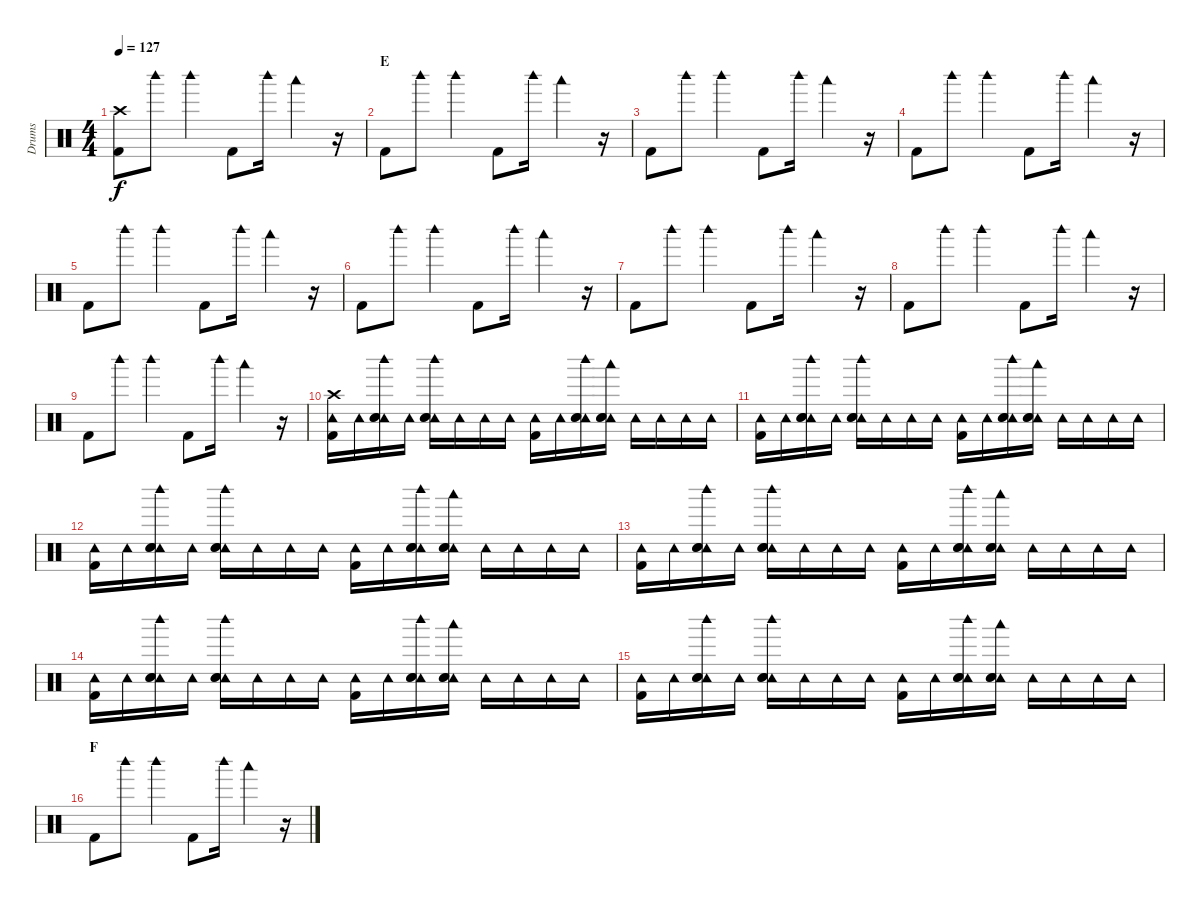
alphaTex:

\track ("Drums" "Drums") {instrument percussion}
\staff {score}
\articulation defaults
\ts (4 4)
\tempo 127
\clef neutral
\ks c
("Crash high (hit)" "Kick (hit) 2").8{dy f} "Woodblock high (hit)".8 "Woodblock high (hit)".4 "Kick (hit) 2".8 "Woodblock high (hit)".16 "Woodblock low (hit)".4 r.16 |
\section ("" "E")
"Kick (hit) 2".8 "Woodblock high (hit)".8 "Woodblock high (hit)".4 "Kick (hit) 2".8 "Woodblock high (hit)".16 "Woodblock low (hit)".4 r.16 |
"Kick (hit) 2".8 "Woodblock high (hit)".8 "Woodblock high (hit)".4 "Kick (hit) 2".8 "Woodblock high (hit)".16 "Woodblock low (hit)".4 r.16 |
"Kick (hit) 2".8 "Woodblock high (hit)".8 "Woodblock high (hit)".4 "Kick (hit) 2".8 "Woodblock high (hit)".16 "Woodblock low (hit)".4 r.16 |
"Kick (hit) 2".8 "Woodblock high (hit)".8 "Woodblock high (hit)".4 "Kick (hit) 2".8 "Woodblock high (hit)".16 "Woodblock low (hit)".4 r.16 |
"Kick (hit) 2".8 "Woodblock high (hit)".8 "Woodblock high (hit)".4 "Kick (hit) 2".8 "Woodblock high (hit)".16 "Woodblock low (hit)".4 r.16 |
"Kick (hit) 2".8 "Woodblock high (hit)".8 "Woodblock high (hit)".4 "Kick (hit) 2".8 "Woodblock high (hit)".16 "Woodblock low (hit)".4 r.16 |
"Kick (hit) 2".8 "Woodblock high (hit)".8 "Woodblock high (hit)".4 "Kick (hit) 2".8 "Woodblock high (hit)".16 "Woodblock low (hit)".4 r.16 |
"Kick (hit) 2".8 "Woodblock high (hit)".8 "Woodblock high (hit)".4 "Kick (hit) 2".8 "Woodblock high (hit)".16 "Woodblock low (hit)".4 r.16 |
("Crash high (hit)" "Tambourine (hit)" "Kick (hit) 2").16{volume 13} "Tambourine (hit)".16 ("Tambourine (hit)" "Electric Snare (hit)" "Hand Clap (hit)" "Woodblock high (hit)").16 "Tambourine (hit)".16 ("Tambourine (hit)" "Electric Snare (hit)" "Hand Clap (hit)" "Woodblock high (hit)").16 "Tambourine (hit)".16 "Tambourine (hit)".16 "Tambourine (hit)".16 ("Tambourine (hit)" "Kick (hit) 2").16 "Tambourine (hit)".16 ("Tambourine (hit)" "Electric Snare (hit)" "Hand Clap (hit)" "Woodblock high (hit)").16 ("Tambourine (hit)" "Electric Snare (hit)" "Hand Clap (hit)" "Woodblock low (hit)").16 "Tambourine (hit)".16 "Tambourine (hit)".16 "Tambourine (hit)".16 "Tambourine (hit)".16 |
("Tambourine (hit)" "Kick (hit) 2").16 "Tambourine (hit)".16 ("Tambourine (hit)" "Electric Snare (hit)" "Hand Clap (hit)" "Woodblock high (hit)").16 "Tambourine (hit)".16 ("Tambourine (hit)" "Electric Snare (hit)" "Hand Clap (hit)" "Woodblock high (hit)").16 "Tambourine (hit)".16 "Tambourine (hit)".16 "Tambourine (hit)".16 ("Tambourine (hit)" "Kick (hit) 2").16 "Tambourine (hit)".16 ("Tambourine (hit)" "Electric Snare (hit)" "Hand Clap (hit)" "Woodblock high (hit)").16 ("Tambourine (hit)" "Electric Snare (hit)" "Hand Clap (hit)" "Woodblock low (hit)").16 "Tambourine (hit)".16 "Tambourine (hit)".16 "Tambourine (hit)".16 "Tambourine (hit)".16 |
("Tambourine (hit)" "Kick (hit) 2").16 "Tambourine (hit)".16 ("Tambourine (hit)" "Electric Snare (hit)" "Hand Clap (hit)" "Woodblock high (hit)").16 "Tambourine (hit)".16 ("Tambourine (hit)" "Electric Snare (hit)" "Hand Clap (hit)" "Woodblock high (hit)").16 "Tambourine (hit)".16 "Tambourine (hit)".16 "Tambourine (hit)".16 ("Tambourine (hit)" "Kick (hit) 2").16 "Tambourine (hit)".16 ("Tambourine (hit)" "Electric Snare (hit)" "Hand Clap (hit)" "Woodblock high (hit)").16 ("Tambourine (hit)" "Electric Snare (hit)" "Hand Clap (hit)" "Woodblock low (hit)").16 "Tambourine (hit)".16 "Tambourine (hit)".16 "Tambourine (hit)".16 "Tambourine (hit)".16 |
("Tambourine (hit)" "Kick (hit) 2").16 "Tambourine (hit)".16 ("Tambourine (hit)" "Electric Snare (hit)" "Hand Clap (hit)" "Woodblock high (hit)").16 "Tambourine (hit)".16 ("Tambourine (hit)" "Electric Snare (hit)" "Hand Clap (hit)" "Woodblock high (hit)").16 "Tambourine (hit)".16 "Tambourine (hit)".16 "Tambourine (hit)".16 ("Tambourine (hit)" "Kick (hit) 2").16 "Tambourine (hit)".16 ("Tambourine (hit)" "Electric Snare (hit)" "Hand Clap (hit)" "Woodblock high (hit)").16 ("Tambourine (hit)" "Electric Snare (hit)" "Hand Clap (hit)" "Woodblock low (hit)").16 "Tambourine (hit)".16 "Tambourine (hit)".16 "Tambourine (hit)".16 "Tambourine (hit)".16 |
("Tambourine (hit)" "Kick (hit) 2").16 "Tambourine (hit)".16 ("Tambourine (hit)" "Electric Snare (hit)" "Hand Clap (hit)" "Woodblock high (hit)").16 "Tambourine (hit)".16 ("Tambourine (hit)" "Electric Snare (hit)" "Hand Clap (hit)" "Woodblock high (hit)").16 "Tambourine (hit)".16 "Tambourine (hit)".16 "Tambourine (hit)".16 ("Tambourine (hit)" "Kick (hit) 2").16 "Tambourine (hit)".16 ("Tambourine (hit)" "Electric Snare (hit)" "Hand Clap (hit)" "Woodblock high (hit)").16 ("Tambourine (hit)" "Electric Snare (hit)" "Hand Clap (hit)" "Woodblock low (hit)").16 "Tambourine (hit)".16 "Tambourine (hit)".16 "Tambourine (hit)".16 "Tambourine (hit)".16 |
("Tambourine (hit)" "Kick (hit) 2").16 "Tambourine (hit)".16 ("Tambourine (hit)" "Electric Snare (hit)" "Hand Clap (hit)" "Woodblock high (hit)").16 "Tambourine (hit)".16 ("Tambourine (hit)" "Electric Snare (hit)" "Hand Clap (hit)" "Woodblock high (hit)").16 "Tambourine (hit)".16 "Tambourine (hit)".16 "Tambourine (hit)".16 ("Tambourine (hit)" "Kick (hit) 2").16 "Tambourine (hit)".16 ("Tambourine (hit)" "Electric Snare (hit)" "Hand Clap (hit)" "Woodblock high (hit)").16 ("Tambourine (hit)" "Electric Snare (hit)" "Hand Clap (hit)" "Woodblock low (hit)").16 "Tambourine (hit)".16 "Tambourine (hit)".16 "Tambourine (hit)".16 "Tambourine (hit)".16 |
\section ("" "F")
"Kick (hit) 2".8 "Woodblock high (hit)".8 "Woodblock high (hit)".4 "Kick (hit) 2".8 "Woodblock high (hit)".16 "Woodblock low (hit)".4 r.16
